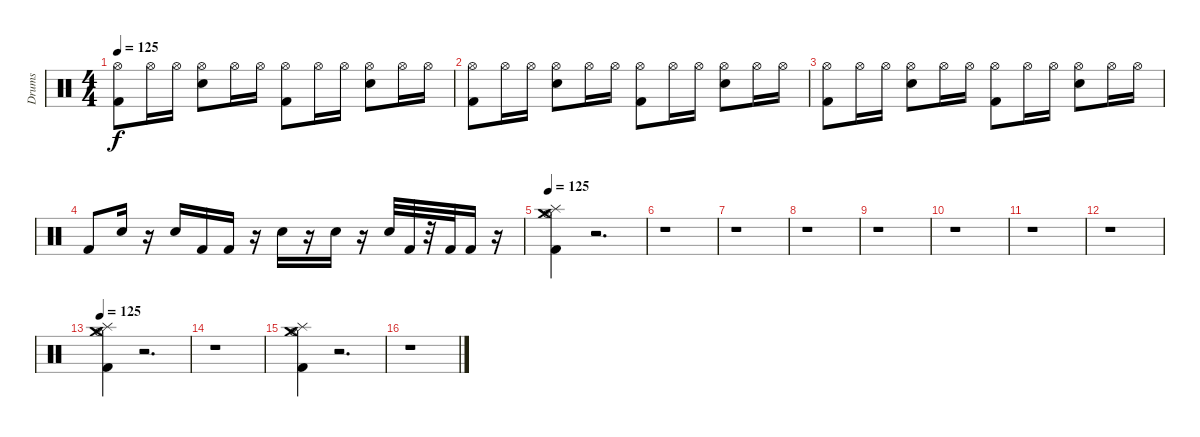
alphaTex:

\track ("Drums" "Drums") {instrument percussion}
\staff {score}
\articulation defaults
\ts (4 4)
\tempo 125
\clef neutral
\ks c
("Hi-Hat (open)" "Kick (hit) 2").8{dy f} "Hi-Hat (open)".16 "Hi-Hat (open)".16 ("Hi-Hat (open)" "Electric Snare (hit)").8 "Hi-Hat (open)".16 "Hi-Hat (open)".16 ("Hi-Hat (open)" "Kick (hit) 2").8 "Hi-Hat (open)".16 "Hi-Hat (open)".16 ("Hi-Hat (open)" "Electric Snare (hit)").8 "Hi-Hat (open)".16 "Hi-Hat (open)".16 |
("Hi-Hat (open)" "Kick (hit) 2").8 "Hi-Hat (open)".16 "Hi-Hat (open)".16 ("Hi-Hat (open)" "Electric Snare (hit)").8 "Hi-Hat (open)".16 "Hi-Hat (open)".16 ("Hi-Hat (open)" "Kick (hit) 2").8 "Hi-Hat (open)".16 "Hi-Hat (open)".16 ("Hi-Hat (open)" "Electric Snare (hit)").8 "Hi-Hat (open)".16 "Hi-Hat (open)".16 |
("Hi-Hat (open)" "Kick (hit) 2").8 "Hi-Hat (open)".16 "Hi-Hat (open)".16 ("Hi-Hat (open)" "Electric Snare (hit)").8 "Hi-Hat (open)".16 "Hi-Hat (open)".16 ("Hi-Hat (open)" "Kick (hit) 2").8 "Hi-Hat (open)".16 "Hi-Hat (open)".16 ("Hi-Hat (open)" "Electric Snare (hit)").8 "Hi-Hat (open)".16 "Hi-Hat (open)".16 |
"Kick (hit) 2".8 "Electric Snare (hit)".16 r.16 "Electric Snare (hit)".16 "Kick (hit) 2".16 "Kick (hit) 2".16 r.16 "Electric Snare (hit)".16 r.16 "Electric Snare (hit)".16 r.16 "Electric Snare (hit)".32 "Kick (hit) 2".32 r.32 "Kick (hit) 2".32 "Kick (hit) 2".16 r.16 |
\tempo 125
("Splash (hit)" "Crash medium (hit)" "Hi-Hat (open)" "Kick (hit) 2").4 r.2{d} |
r.1 |
r.1 |
r.1 |
r.1 |
r.1 |
r.1 |
r.1 |
\tempo 125
("Hi-Hat (open)" "Crash medium (hit)" "Splash (hit)" "Kick (hit) 2").4 r.2{d} |
r.1 |
("Crash medium (hit)" "Splash (hit)" "Hi-Hat (open)" "Kick (hit) 2").4 r.2{d} |
r.1
